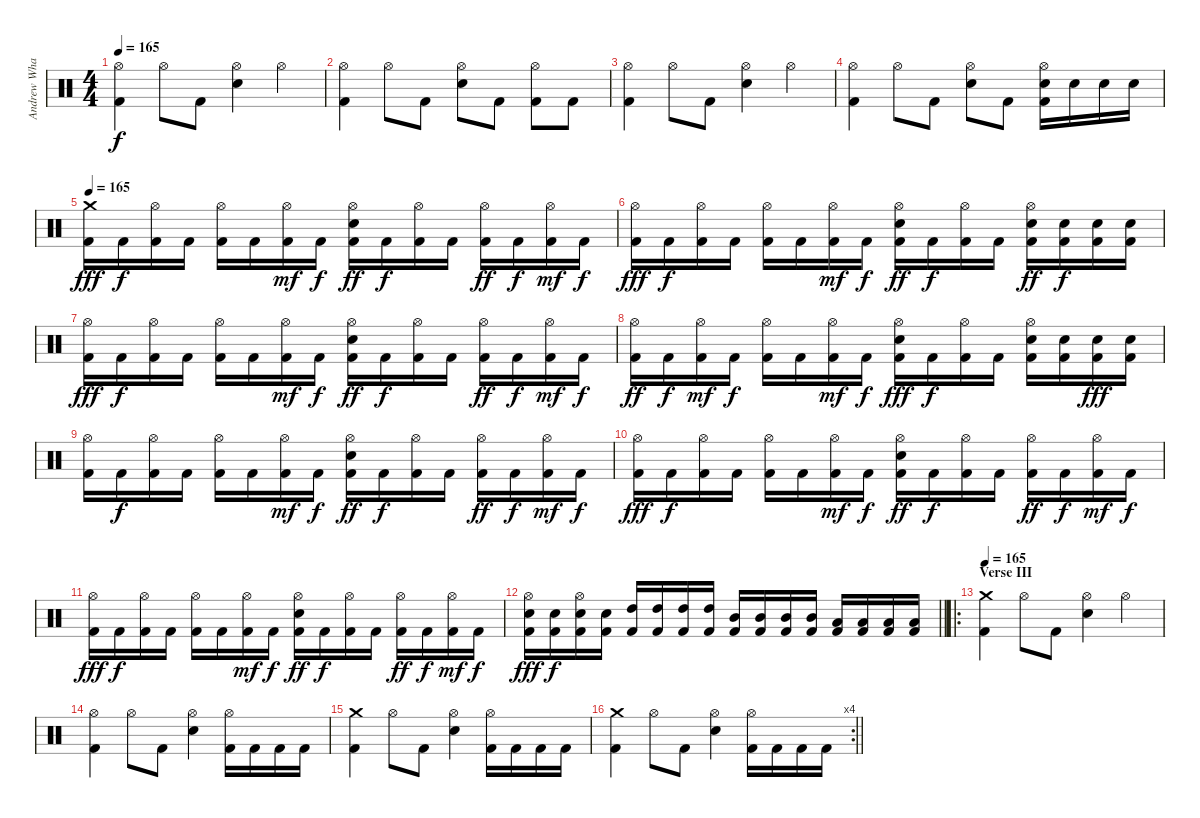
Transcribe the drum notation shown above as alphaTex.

\track ("Andrew Whale" "Andrew Wha") {instrument percussion}
\staff {score}
\articulation defaults
\ts (4 4)
\tempo 165
\clef neutral
\ks c
("Hi-Hat (open)" "Kick (hit) 2").4{dy f} "Hi-Hat (open)".8 "Kick (hit) 2".8 ("Hi-Hat (open)" "Snare (hit) 2").4 "Hi-Hat (open)".4 |
("Hi-Hat (open)" "Kick (hit) 2").4 "Hi-Hat (open)".8 "Kick (hit) 2".8 ("Hi-Hat (open)" "Snare (hit) 2").8 "Kick (hit) 2".8 ("Hi-Hat (open)" "Kick (hit) 2").8 "Kick (hit) 2".8 |
("Hi-Hat (open)" "Kick (hit) 2").4 "Hi-Hat (open)".8 "Kick (hit) 2".8 ("Hi-Hat (open)" "Snare (hit) 2").4 "Hi-Hat (open)".4 |
("Hi-Hat (open)" "Kick (hit) 2").4 "Hi-Hat (open)".8 "Kick (hit) 2".8 ("Hi-Hat (open)" "Snare (hit) 2").8 "Kick (hit) 2".8 ("Hi-Hat (open)" "Snare (hit) 2" "Kick (hit) 2").16 "Snare (hit) 2".16 "Snare (hit) 2".16 "Snare (hit) 2".16 |
\tempo 165
("Crash medium (hit)" "Kick (hit) 2").16{dy fff} "Kick (hit) 2".16{dy f} ("Hi-Hat (open)" "Kick (hit) 2").16 "Kick (hit) 2".16 ("Hi-Hat (open)" "Kick (hit) 2").16 "Kick (hit) 2".16 ("Hi-Hat (open)" "Kick (hit) 2").16{dy mf} "Kick (hit) 2".16{dy f} ("Hi-Hat (open)" "Snare (hit) 2" "Kick (hit) 2").16{dy ff} "Kick (hit) 2".16{dy f} ("Hi-Hat (open)" "Kick (hit) 2").16 "Kick (hit) 2".16 ("Hi-Hat (open)" "Kick (hit) 2").16{dy ff} "Kick (hit) 2".16{dy f} ("Hi-Hat (open)" "Kick (hit) 2").16{dy mf} "Kick (hit) 2".16{dy f} |
("Hi-Hat (open)" "Kick (hit) 2").16{dy fff} "Kick (hit) 2".16{dy f} ("Hi-Hat (open)" "Kick (hit) 2").16 "Kick (hit) 2".16 ("Hi-Hat (open)" "Kick (hit) 2").16 "Kick (hit) 2".16 ("Hi-Hat (open)" "Kick (hit) 2").16{dy mf} "Kick (hit) 2".16{dy f} ("Hi-Hat (open)" "Snare (hit) 2" "Kick (hit) 2").16{dy ff} "Kick (hit) 2".16{dy f} ("Hi-Hat (open)" "Kick (hit) 2").16 "Kick (hit) 2".16 ("Hi-Hat (open)" "Snare (hit) 2" "Kick (hit) 2").16{dy ff} ("Snare (hit) 2" "Kick (hit) 2").16{dy f} ("Snare (hit) 2" "Kick (hit) 2").16 ("Snare (hit) 2" "Kick (hit) 2").16 |
("Hi-Hat (open)" "Kick (hit) 2").16{dy fff} "Kick (hit) 2".16{dy f} ("Hi-Hat (open)" "Kick (hit) 2").16 "Kick (hit) 2".16 ("Hi-Hat (open)" "Kick (hit) 2").16 "Kick (hit) 2".16 ("Hi-Hat (open)" "Kick (hit) 2").16{dy mf} "Kick (hit) 2".16{dy f} ("Hi-Hat (open)" "Snare (hit) 2" "Kick (hit) 2").16{dy ff} "Kick (hit) 2".16{dy f} ("Hi-Hat (open)" "Kick (hit) 2").16 "Kick (hit) 2".16 ("Hi-Hat (open)" "Kick (hit) 2").16{dy ff} "Kick (hit) 2".16{dy f} ("Hi-Hat (open)" "Kick (hit) 2").16{dy mf} "Kick (hit) 2".16{dy f} |
("Hi-Hat (open)" "Kick (hit) 2").16{dy ff} "Kick (hit) 2".16{dy f} ("Hi-Hat (open)" "Kick (hit) 2").16{dy mf} "Kick (hit) 2".16{dy f} ("Hi-Hat (open)" "Kick (hit) 2").16 "Kick (hit) 2".16 ("Hi-Hat (open)" "Kick (hit) 2").16{dy mf} "Kick (hit) 2".16{dy f} ("Hi-Hat (open)" "Snare (hit) 2" "Kick (hit) 2").16{dy fff} "Kick (hit) 2".16{dy f} ("Hi-Hat (open)" "Kick (hit) 2").16 "Kick (hit) 2".16 ("Hi-Hat (open)" "Snare (hit) 2" "Kick (hit) 2").16 ("Snare (hit) 2" "Kick (hit) 2").16 ("Snare (hit) 2" "Kick (hit) 2").16{dy fff} ("Snare (hit) 2" "Kick (hit) 2").16 |
("Hi-Hat (open)" "Kick (hit) 2").16 "Kick (hit) 2".16{dy f} ("Hi-Hat (open)" "Kick (hit) 2").16 "Kick (hit) 2".16 ("Hi-Hat (open)" "Kick (hit) 2").16 "Kick (hit) 2".16 ("Hi-Hat (open)" "Kick (hit) 2").16{dy mf} "Kick (hit) 2".16{dy f} ("Hi-Hat (open)" "Snare (hit) 2" "Kick (hit) 2").16{dy ff} "Kick (hit) 2".16{dy f} ("Hi-Hat (open)" "Kick (hit) 2").16 "Kick (hit) 2".16 ("Hi-Hat (open)" "Kick (hit) 2").16{dy ff} "Kick (hit) 2".16{dy f} ("Hi-Hat (open)" "Kick (hit) 2").16{dy mf} "Kick (hit) 2".16{dy f} |
("Hi-Hat (open)" "Kick (hit) 2").16{dy fff} "Kick (hit) 2".16{dy f} ("Hi-Hat (open)" "Kick (hit) 2").16 "Kick (hit) 2".16 ("Hi-Hat (open)" "Kick (hit) 2").16 "Kick (hit) 2".16 ("Hi-Hat (open)" "Kick (hit) 2").16{dy mf} "Kick (hit) 2".16{dy f} ("Hi-Hat (open)" "Snare (hit) 2" "Kick (hit) 2").16{dy ff} "Kick (hit) 2".16{dy f} ("Hi-Hat (open)" "Kick (hit) 2").16 "Kick (hit) 2".16 ("Hi-Hat (open)" "Kick (hit) 2").16{dy ff} "Kick (hit) 2".16{dy f} ("Hi-Hat (open)" "Kick (hit) 2").16{dy mf} "Kick (hit) 2".16{dy f} |
("Hi-Hat (open)" "Kick (hit) 2").16{dy fff} "Kick (hit) 2".16{dy f} ("Hi-Hat (open)" "Kick (hit) 2").16 "Kick (hit) 2".16 ("Hi-Hat (open)" "Kick (hit) 2").16 "Kick (hit) 2".16 ("Hi-Hat (open)" "Kick (hit) 2").16{dy mf} "Kick (hit) 2".16{dy f} ("Hi-Hat (open)" "Snare (hit) 2" "Kick (hit) 2").16{dy ff} "Kick (hit) 2".16{dy f} ("Hi-Hat (open)" "Kick (hit) 2").16 "Kick (hit) 2".16 ("Hi-Hat (open)" "Kick (hit) 2").16{dy ff} "Kick (hit) 2".16{dy f} ("Hi-Hat (open)" "Kick (hit) 2").16{dy mf} "Kick (hit) 2".16{dy f} |
\barLineRight lightlight
("Hi-Hat (open)" "Snare (hit) 2" "Kick (hit) 2").16{dy fff} ("Snare (hit) 2" "Kick (hit) 2").16{dy f} ("Hi-Hat (open)" "Snare (hit) 2" "Kick (hit) 2").16 ("Snare (hit) 2" "Kick (hit) 2").16 ("High Tom (hit)" "Kick (hit) 2").16 ("High Tom (hit)" "Kick (hit) 2").16 ("High Tom (hit)" "Kick (hit) 2").16 ("High Tom (hit)" "Kick (hit) 2").16 ("Mid Tom (hit)" "Kick (hit) 2").16 ("Mid Tom (hit)" "Kick (hit) 2").16 ("Mid Tom (hit)" "Kick (hit) 2").16 ("Mid Tom (hit)" "Kick (hit) 2").16 ("Low Tom (hit)" "Kick (hit) 2").16 ("Low Tom (hit)" "Kick (hit) 2").16 ("Low Tom (hit)" "Kick (hit) 2").16 ("Low Tom (hit)" "Kick (hit) 2").16 |
\ro
\section ("" "Verse III")
\tempo 165
("Crash medium (hit)" "Kick (hit) 2").4 "Hi-Hat (open)".8 "Kick (hit) 2".8 ("Hi-Hat (open)" "Snare (hit) 2").4 "Hi-Hat (open)".4 |
("Hi-Hat (open)" "Kick (hit) 2").4 "Hi-Hat (open)".8 "Kick (hit) 2".8 ("Hi-Hat (open)" "Snare (hit) 2").4 ("Hi-Hat (open)" "Kick (hit) 2").16 "Kick (hit) 2".16 "Kick (hit) 2".16 "Kick (hit) 2".16 |
("Crash medium (hit)" "Kick (hit) 2").4 "Hi-Hat (open)".8 "Kick (hit) 2".8 ("Hi-Hat (open)" "Snare (hit) 2").4 ("Hi-Hat (open)" "Kick (hit) 2").16 "Kick (hit) 2".16 "Kick (hit) 2".16 "Kick (hit) 2".16 |
\rc 4
\barLineRight lightlight
("Crash medium (hit)" "Kick (hit) 2").4 "Hi-Hat (open)".8 "Kick (hit) 2".8 ("Hi-Hat (open)" "Snare (hit) 2").4 ("Hi-Hat (open)" "Kick (hit) 2").16 "Kick (hit) 2".16 "Kick (hit) 2".16 "Kick (hit) 2".16
